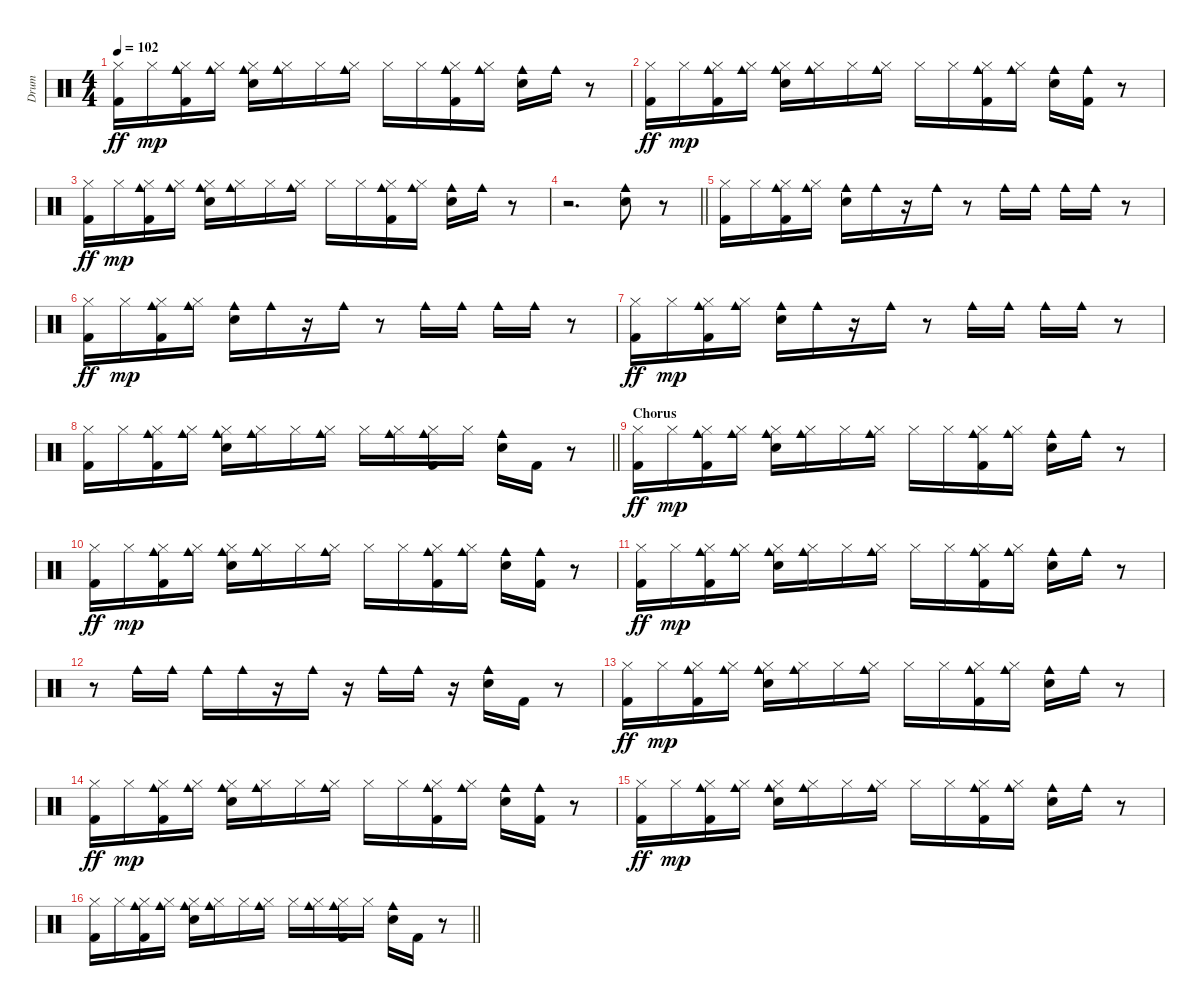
\track ("Drum" "Drum") {instrument percussion}
\staff {score}
\articulation defaults
\ts (4 4)
\tempo 102
\clef neutral
\ks c
("Hi-Hat (closed)" "Kick (hit) 2").16{dy ff volume 12} "Hi-Hat (closed)".16{dy mp} ("Hi-Hat (closed)" "Kick (hit) 2" "Cowbell medium (hit)").16 ("Hi-Hat (closed)" "Cowbell medium (hit)").16 ("Electric Snare (hit)" "Hi-Hat (closed)" "Cowbell medium (hit)").16 ("Hi-Hat (closed)" "Cowbell medium (hit)").16 "Hi-Hat (closed)".16 ("Hi-Hat (closed)" "Cowbell medium (hit)").16 "Hi-Hat (closed)".16 "Hi-Hat (closed)".16 ("Hi-Hat (closed)" "Kick (hit) 2" "Cowbell medium (hit)").16 ("Hi-Hat (closed)" "Cowbell medium (hit)").16 ("Electric Snare (hit)" "Cowbell medium (hit)").16 "Cowbell medium (hit)".16 r.8 |
("Hi-Hat (closed)" "Kick (hit) 2").16{dy ff volume 12} "Hi-Hat (closed)".16{dy mp} ("Hi-Hat (closed)" "Kick (hit) 2" "Cowbell medium (hit)").16 ("Hi-Hat (closed)" "Cowbell medium (hit)").16 ("Electric Snare (hit)" "Hi-Hat (closed)" "Cowbell medium (hit)").16 ("Hi-Hat (closed)" "Cowbell medium (hit)").16 "Hi-Hat (closed)".16 ("Hi-Hat (closed)" "Cowbell medium (hit)").16 "Hi-Hat (closed)".16 "Hi-Hat (closed)".16 ("Hi-Hat (closed)" "Kick (hit) 2" "Cowbell medium (hit)").16 ("Hi-Hat (closed)" "Cowbell medium (hit)").16 ("Electric Snare (hit)" "Cowbell medium (hit)").16 ("Cowbell medium (hit)" "Kick (hit) 2").16 r.8 |
("Hi-Hat (closed)" "Kick (hit) 2").16{dy ff volume 12} "Hi-Hat (closed)".16{dy mp} ("Hi-Hat (closed)" "Kick (hit) 2" "Cowbell medium (hit)").16 ("Hi-Hat (closed)" "Cowbell medium (hit)").16 ("Electric Snare (hit)" "Hi-Hat (closed)" "Cowbell medium (hit)").16 ("Hi-Hat (closed)" "Cowbell medium (hit)").16 "Hi-Hat (closed)".16 ("Hi-Hat (closed)" "Cowbell medium (hit)").16 "Hi-Hat (closed)".16 "Hi-Hat (closed)".16 ("Hi-Hat (closed)" "Kick (hit) 2" "Cowbell medium (hit)").16 ("Hi-Hat (closed)" "Cowbell medium (hit)").16 ("Electric Snare (hit)" "Cowbell medium (hit)").16 "Cowbell medium (hit)".16 r.8 |
\barLineRight lightlight
r.2{d volume 12} ("Electric Snare (hit)" "Cowbell medium (hit)").8 r.8 |
("Kick (hit) 2" "Hi-Hat (closed)").16{volume 12} "Hi-Hat (closed)".16 ("Cowbell medium (hit)" "Kick (hit) 2" "Hi-Hat (closed)").16 ("Cowbell medium (hit)" "Hi-Hat (closed)").16 ("Cowbell medium (hit)" "Electric Snare (hit)").16 "Cowbell medium (hit)".16 r.16 "Cowbell medium (hit)".16 r.8 "Cowbell medium (hit)".16 "Cowbell medium (hit)".16 "Cowbell medium (hit)".16 "Cowbell medium (hit)".16 r.8 |
("Hi-Hat (closed)" "Kick (hit) 2").16{dy ff volume 12} "Hi-Hat (closed)".16{dy mp} ("Hi-Hat (closed)" "Kick (hit) 2" "Cowbell medium (hit)").16 ("Hi-Hat (closed)" "Cowbell medium (hit)").16 ("Electric Snare (hit)" "Cowbell medium (hit)").16 "Cowbell medium (hit)".16 r.16 "Cowbell medium (hit)".16 r.8 "Cowbell medium (hit)".16 "Cowbell medium (hit)".16 "Cowbell medium (hit)".16 "Cowbell medium (hit)".16 r.8 |
("Hi-Hat (closed)" "Kick (hit) 2").16{dy ff volume 12} "Hi-Hat (closed)".16{dy mp} ("Hi-Hat (closed)" "Kick (hit) 2" "Cowbell medium (hit)").16 ("Hi-Hat (closed)" "Cowbell medium (hit)").16 ("Electric Snare (hit)" "Cowbell medium (hit)").16 "Cowbell medium (hit)".16 r.16 "Cowbell medium (hit)".16 r.8 "Cowbell medium (hit)".16 "Cowbell medium (hit)".16 "Cowbell medium (hit)".16 "Cowbell medium (hit)".16 r.8 |
\barLineRight lightlight
("Kick (hit) 2" "Hi-Hat (closed)").16{volume 12} "Hi-Hat (closed)".16 ("Kick (hit) 2" "Hi-Hat (closed)" "Cowbell medium (hit)").16 ("Hi-Hat (closed)" "Cowbell medium (hit)").16 ("Electric Snare (hit)" "Hi-Hat (closed)" "Cowbell medium (hit)").16 ("Hi-Hat (closed)" "Cowbell medium (hit)").16 "Hi-Hat (closed)".16 ("Hi-Hat (closed)" "Cowbell medium (hit)").16 "Hi-Hat (closed)".16 ("Hi-Hat (closed)" "Cowbell medium (hit)").16 ("Hi-Hat (closed)" "Kick (hit) 2" "Cowbell medium (hit)").16 "Hi-Hat (closed)".16 ("Electric Snare (hit)" "Cowbell medium (hit)").16 "Kick (hit) 2".16 r.8 |
\section ("" "Chorus")
("Hi-Hat (closed)" "Kick (hit) 2").16{dy ff volume 12} "Hi-Hat (closed)".16{dy mp} ("Hi-Hat (closed)" "Kick (hit) 2" "Cowbell medium (hit)").16 ("Hi-Hat (closed)" "Cowbell medium (hit)").16 ("Electric Snare (hit)" "Hi-Hat (closed)" "Cowbell medium (hit)").16 ("Hi-Hat (closed)" "Cowbell medium (hit)").16 "Hi-Hat (closed)".16 ("Hi-Hat (closed)" "Cowbell medium (hit)").16 "Hi-Hat (closed)".16 "Hi-Hat (closed)".16 ("Hi-Hat (closed)" "Kick (hit) 2" "Cowbell medium (hit)").16 ("Hi-Hat (closed)" "Cowbell medium (hit)").16 ("Electric Snare (hit)" "Cowbell medium (hit)").16 "Cowbell medium (hit)".16 r.8 |
("Hi-Hat (closed)" "Kick (hit) 2").16{dy ff volume 12} "Hi-Hat (closed)".16{dy mp} ("Hi-Hat (closed)" "Kick (hit) 2" "Cowbell medium (hit)").16 ("Hi-Hat (closed)" "Cowbell medium (hit)").16 ("Electric Snare (hit)" "Hi-Hat (closed)" "Cowbell medium (hit)").16 ("Hi-Hat (closed)" "Cowbell medium (hit)").16 "Hi-Hat (closed)".16 ("Hi-Hat (closed)" "Cowbell medium (hit)").16 "Hi-Hat (closed)".16 "Hi-Hat (closed)".16 ("Hi-Hat (closed)" "Kick (hit) 2" "Cowbell medium (hit)").16 ("Hi-Hat (closed)" "Cowbell medium (hit)").16 ("Electric Snare (hit)" "Cowbell medium (hit)").16 ("Cowbell medium (hit)" "Kick (hit) 2").16 r.8 |
("Hi-Hat (closed)" "Kick (hit) 2").16{dy ff volume 12} "Hi-Hat (closed)".16{dy mp} ("Hi-Hat (closed)" "Kick (hit) 2" "Cowbell medium (hit)").16 ("Hi-Hat (closed)" "Cowbell medium (hit)").16 ("Electric Snare (hit)" "Hi-Hat (closed)" "Cowbell medium (hit)").16 ("Hi-Hat (closed)" "Cowbell medium (hit)").16 "Hi-Hat (closed)".16 ("Hi-Hat (closed)" "Cowbell medium (hit)").16 "Hi-Hat (closed)".16 "Hi-Hat (closed)".16 ("Hi-Hat (closed)" "Kick (hit) 2" "Cowbell medium (hit)").16 ("Hi-Hat (closed)" "Cowbell medium (hit)").16 ("Electric Snare (hit)" "Cowbell medium (hit)").16 "Cowbell medium (hit)".16 r.8 |
r.8 "Cowbell medium (hit)".16{volume 12} "Cowbell medium (hit)".16 "Cowbell medium (hit)".16 "Cowbell medium (hit)".16 r.16 "Cowbell medium (hit)".16 r.16 "Cowbell medium (hit)".16 "Cowbell medium (hit)".16 r.16 ("Electric Snare (hit)" "Cowbell medium (hit)").16 "Kick (hit) 2".16 r.8 |
("Hi-Hat (closed)" "Kick (hit) 2").16{dy ff volume 12} "Hi-Hat (closed)".16{dy mp} ("Hi-Hat (closed)" "Kick (hit) 2" "Cowbell medium (hit)").16 ("Hi-Hat (closed)" "Cowbell medium (hit)").16 ("Electric Snare (hit)" "Hi-Hat (closed)" "Cowbell medium (hit)").16 ("Hi-Hat (closed)" "Cowbell medium (hit)").16 "Hi-Hat (closed)".16 ("Hi-Hat (closed)" "Cowbell medium (hit)").16 "Hi-Hat (closed)".16 "Hi-Hat (closed)".16 ("Hi-Hat (closed)" "Kick (hit) 2" "Cowbell medium (hit)").16 ("Hi-Hat (closed)" "Cowbell medium (hit)").16 ("Electric Snare (hit)" "Cowbell medium (hit)").16 "Cowbell medium (hit)".16 r.8 |
("Hi-Hat (closed)" "Kick (hit) 2").16{dy ff volume 12} "Hi-Hat (closed)".16{dy mp} ("Hi-Hat (closed)" "Kick (hit) 2" "Cowbell medium (hit)").16 ("Hi-Hat (closed)" "Cowbell medium (hit)").16 ("Electric Snare (hit)" "Hi-Hat (closed)" "Cowbell medium (hit)").16 ("Hi-Hat (closed)" "Cowbell medium (hit)").16 "Hi-Hat (closed)".16 ("Hi-Hat (closed)" "Cowbell medium (hit)").16 "Hi-Hat (closed)".16 "Hi-Hat (closed)".16 ("Hi-Hat (closed)" "Kick (hit) 2" "Cowbell medium (hit)").16 ("Hi-Hat (closed)" "Cowbell medium (hit)").16 ("Electric Snare (hit)" "Cowbell medium (hit)").16 ("Cowbell medium (hit)" "Kick (hit) 2").16 r.8 |
("Hi-Hat (closed)" "Kick (hit) 2").16{dy ff volume 12} "Hi-Hat (closed)".16{dy mp} ("Hi-Hat (closed)" "Kick (hit) 2" "Cowbell medium (hit)").16 ("Hi-Hat (closed)" "Cowbell medium (hit)").16 ("Electric Snare (hit)" "Hi-Hat (closed)" "Cowbell medium (hit)").16 ("Hi-Hat (closed)" "Cowbell medium (hit)").16 "Hi-Hat (closed)".16 ("Hi-Hat (closed)" "Cowbell medium (hit)").16 "Hi-Hat (closed)".16 "Hi-Hat (closed)".16 ("Hi-Hat (closed)" "Kick (hit) 2" "Cowbell medium (hit)").16 ("Hi-Hat (closed)" "Cowbell medium (hit)").16 ("Electric Snare (hit)" "Cowbell medium (hit)").16 "Cowbell medium (hit)".16 r.8 |
\barLineRight lightlight
("Kick (hit) 2" "Hi-Hat (closed)").16{volume 12} "Hi-Hat (closed)".16 ("Kick (hit) 2" "Hi-Hat (closed)" "Cowbell medium (hit)").16 ("Hi-Hat (closed)" "Cowbell medium (hit)").16 ("Electric Snare (hit)" "Hi-Hat (closed)" "Cowbell medium (hit)").16 ("Hi-Hat (closed)" "Cowbell medium (hit)").16 "Hi-Hat (closed)".16 ("Hi-Hat (closed)" "Cowbell medium (hit)").16 "Hi-Hat (closed)".16 ("Hi-Hat (closed)" "Cowbell medium (hit)").16 ("Hi-Hat (closed)" "Kick (hit) 2" "Cowbell medium (hit)").16 "Hi-Hat (closed)".16 ("Electric Snare (hit)" "Cowbell medium (hit)").16 "Kick (hit) 2".16 r.8
